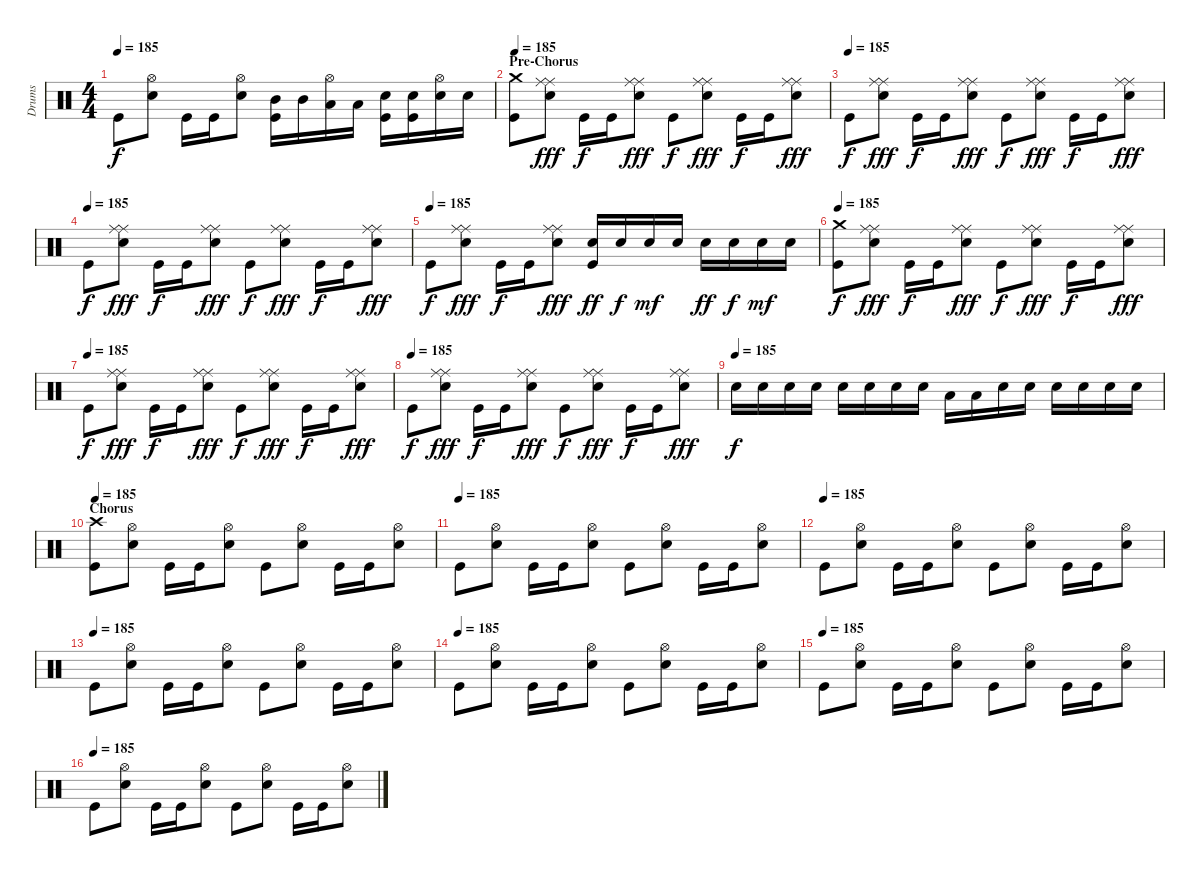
\track ("Drums" "Drums") {instrument percussion}
\staff {score}
\articulation defaults
\ts (4 4)
\tempo 185
\clef neutral
\ks c "Kick (hit)".8{dy f}
("Hi-Hat (open)" "Electric Snare (hit)").8 "Kick (hit)".16 "Kick (hit)".16 ("Hi-Hat (open)" "Electric Snare (hit)").8 ("Mid Tom (hit)" "Kick (hit)").16 "Mid Tom (hit)".16 ("Hi-Hat (open)" "Low Tom (hit)").16 "Low Tom (hit)".16 ("Electric Snare (hit)" "Kick (hit)").16 ("Electric Snare (hit)" "Kick (hit)").16 ("Hi-Hat (open)" "Electric Snare (hit)").16 "Electric Snare (hit)".16 |
\section ("" "Pre-Chorus ")
\tempo 185
("Crash medium (hit)" "Kick (hit)").8 ("Ride (middle)" "Ride (middle)" "Electric Snare (hit)").8{dy fff} "Kick (hit)".16{dy f} "Kick (hit)".16 ("Ride (middle)" "Ride (middle)" "Electric Snare (hit)").8{dy fff} "Kick (hit)".8{dy f} ("Ride (middle)" "Ride (middle)" "Electric Snare (hit)").8{dy fff} "Kick (hit)".16{dy f} "Kick (hit)".16 ("Ride (middle)" "Ride (middle)" "Electric Snare (hit)").8{dy fff} |
\tempo (185)
"Kick (hit)".8{dy f} ("Ride (middle)" "Ride (middle)" "Electric Snare (hit)").8{dy fff} "Kick (hit)".16{dy f} "Kick (hit)".16 ("Ride (middle)" "Ride (middle)" "Electric Snare (hit)").8{dy fff} "Kick (hit)".8{dy f} ("Ride (middle)" "Ride (middle)" "Electric Snare (hit)").8{dy fff} "Kick (hit)".16{dy f} "Kick (hit)".16 ("Ride (middle)" "Ride (middle)" "Electric Snare (hit)").8{dy fff} |
\tempo (185)
"Kick (hit)".8{dy f} ("Ride (middle)" "Ride (middle)" "Electric Snare (hit)").8{dy fff} "Kick (hit)".16{dy f} "Kick (hit)".16 ("Ride (middle)" "Ride (middle)" "Electric Snare (hit)").8{dy fff} "Kick (hit)".8{dy f} ("Ride (middle)" "Ride (middle)" "Electric Snare (hit)").8{dy fff} "Kick (hit)".16{dy f} "Kick (hit)".16 ("Ride (middle)" "Ride (middle)" "Electric Snare (hit)").8{dy fff} |
\tempo (185)
"Kick (hit)".8{dy f} ("Ride (middle)" "Ride (middle)" "Electric Snare (hit)").8{dy fff} "Kick (hit)".16{dy f} "Kick (hit)".16 ("Ride (middle)" "Ride (middle)" "Electric Snare (hit)").8{dy fff} ("Electric Snare (hit)" "Kick (hit)").16{dy ff} "Electric Snare (hit)".16{dy f} "Electric Snare (hit)".16{dy mf} "Electric Snare (hit)".16 "Electric Snare (hit)".16{dy ff} "Electric Snare (hit)".16{dy f} "Electric Snare (hit)".16{dy mf} "Electric Snare (hit)".16 |
\tempo 185
("Crash medium (hit)" "Kick (hit)").8{dy f} ("Ride (middle)" "Ride (middle)" "Electric Snare (hit)").8{dy fff} "Kick (hit)".16{dy f} "Kick (hit)".16 ("Ride (middle)" "Ride (middle)" "Electric Snare (hit)").8{dy fff} "Kick (hit)".8{dy f} ("Ride (middle)" "Ride (middle)" "Electric Snare (hit)").8{dy fff} "Kick (hit)".16{dy f} "Kick (hit)".16 ("Ride (middle)" "Ride (middle)" "Electric Snare (hit)").8{dy fff} |
\tempo (185)
"Kick (hit)".8{dy f} ("Ride (middle)" "Ride (middle)" "Electric Snare (hit)").8{dy fff} "Kick (hit)".16{dy f} "Kick (hit)".16 ("Ride (middle)" "Ride (middle)" "Electric Snare (hit)").8{dy fff} "Kick (hit)".8{dy f} ("Ride (middle)" "Ride (middle)" "Electric Snare (hit)").8{dy fff} "Kick (hit)".16{dy f} "Kick (hit)".16 ("Ride (middle)" "Ride (middle)" "Electric Snare (hit)").8{dy fff} |
\tempo (185)
"Kick (hit)".8{dy f} ("Ride (middle)" "Ride (middle)" "Electric Snare (hit)").8{dy fff} "Kick (hit)".16{dy f} "Kick (hit)".16 ("Ride (middle)" "Ride (middle)" "Electric Snare (hit)").8{dy fff} "Kick (hit)".8{dy f} ("Ride (middle)" "Ride (middle)" "Electric Snare (hit)").8{dy fff} "Kick (hit)".16{dy f} "Kick (hit)".16 ("Ride (middle)" "Ride (middle)" "Electric Snare (hit)").8{dy fff} |
\tempo (185)
"Electric Snare (hit)".16{dy f} "Electric Snare (hit)".16 "Electric Snare (hit)".16 "Electric Snare (hit)".16 "Electric Snare (hit)".16 "Electric Snare (hit)".16 "Electric Snare (hit)".16 "Electric Snare (hit)".16 "Low Tom (hit)".16 "Low Tom (hit)".16 "Electric Snare (hit)".16 "Electric Snare (hit)".16 "Electric Snare (hit)".16 "Electric Snare (hit)".16 "Electric Snare (hit)".16 "Electric Snare (hit)".16 |
\section ("" "Chorus ")
\tempo 185
("Crash high (hit)" "Kick (hit)").8 ("Hi-Hat (open)" "Electric Snare (hit)").8 "Kick (hit)".16 "Kick (hit)".16 ("Hi-Hat (open)" "Electric Snare (hit)").8 "Kick (hit)".8 ("Hi-Hat (open)" "Electric Snare (hit)").8 "Kick (hit)".16 "Kick (hit)".16 ("Hi-Hat (open)" "Electric Snare (hit)").8 |
\tempo (185)
"Kick (hit)".8 ("Hi-Hat (open)" "Electric Snare (hit)").8 "Kick (hit)".16 "Kick (hit)".16 ("Hi-Hat (open)" "Electric Snare (hit)").8 "Kick (hit)".8 ("Hi-Hat (open)" "Electric Snare (hit)").8 "Kick (hit)".16 "Kick (hit)".16 ("Hi-Hat (open)" "Electric Snare (hit)").8 |
\tempo (185)
"Kick (hit)".8 ("Hi-Hat (open)" "Electric Snare (hit)").8 "Kick (hit)".16 "Kick (hit)".16 ("Hi-Hat (open)" "Electric Snare (hit)").8 "Kick (hit)".8 ("Hi-Hat (open)" "Electric Snare (hit)").8 "Kick (hit)".16 "Kick (hit)".16 ("Hi-Hat (open)" "Electric Snare (hit)").8 |
\tempo (185)
"Kick (hit)".8 ("Hi-Hat (open)" "Electric Snare (hit)").8 "Kick (hit)".16 "Kick (hit)".16 ("Hi-Hat (open)" "Electric Snare (hit)").8 "Kick (hit)".8 ("Hi-Hat (open)" "Electric Snare (hit)").8 "Kick (hit)".16 "Kick (hit)".16 ("Hi-Hat (open)" "Electric Snare (hit)").8 |
\tempo (185)
"Kick (hit)".8 ("Hi-Hat (open)" "Electric Snare (hit)").8 "Kick (hit)".16 "Kick (hit)".16 ("Hi-Hat (open)" "Electric Snare (hit)").8 "Kick (hit)".8 ("Hi-Hat (open)" "Electric Snare (hit)").8 "Kick (hit)".16 "Kick (hit)".16 ("Hi-Hat (open)" "Electric Snare (hit)").8 |
\tempo (185)
"Kick (hit)".8 ("Hi-Hat (open)" "Electric Snare (hit)").8 "Kick (hit)".16 "Kick (hit)".16 ("Hi-Hat (open)" "Electric Snare (hit)").8 "Kick (hit)".8 ("Hi-Hat (open)" "Electric Snare (hit)").8 "Kick (hit)".16 "Kick (hit)".16 ("Hi-Hat (open)" "Electric Snare (hit)").8 |
\tempo (185)
"Kick (hit)".8 ("Hi-Hat (open)" "Electric Snare (hit)").8 "Kick (hit)".16 "Kick (hit)".16 ("Hi-Hat (open)" "Electric Snare (hit)").8 "Kick (hit)".8 ("Hi-Hat (open)" "Electric Snare (hit)").8 "Kick (hit)".16 "Kick (hit)".16 ("Hi-Hat (open)" "Electric Snare (hit)").8
